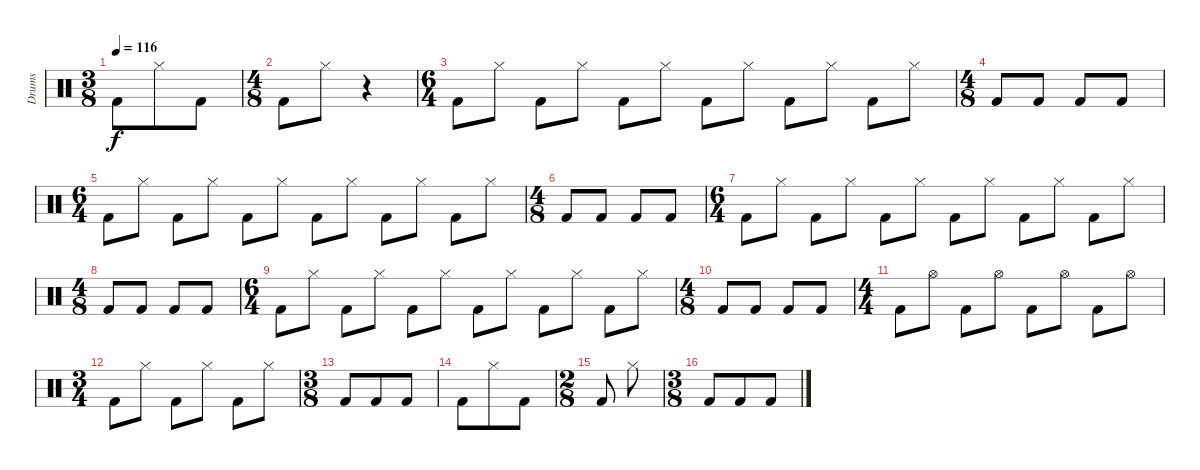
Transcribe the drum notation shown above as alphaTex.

\track ("Drums" "Drums") {instrument percussion}
\staff {score}
\articulation defaults
\ts (3 8)
\tempo 116
\clef neutral
\ks c "Kick (hit) 2".8{dy f} "Hi-Hat (closed)".8 "Kick (hit) 2".8
|
\ts (4 8)
"Kick (hit) 2".8 "Hi-Hat (closed)".8 r.4 |
\ts (6 4)
"Kick (hit) 2".8 "Hi-Hat (closed)".8 "Kick (hit) 2".8 "Hi-Hat (closed)".8 "Kick (hit) 2".8 "Hi-Hat (closed)".8 "Kick (hit) 2".8 "Hi-Hat (closed)".8 "Kick (hit) 2".8 "Hi-Hat (closed)".8 "Kick (hit) 2".8 "Hi-Hat (closed)".8 |
\ts (4 8)
"Kick (hit) 2".8 "Kick (hit) 2".8 "Kick (hit) 2".8 "Kick (hit) 2".8 |
\ts (6 4)
"Kick (hit) 2".8 "Hi-Hat (closed)".8 "Kick (hit) 2".8 "Hi-Hat (closed)".8 "Kick (hit) 2".8 "Hi-Hat (closed)".8 "Kick (hit) 2".8 "Hi-Hat (closed)".8 "Kick (hit) 2".8 "Hi-Hat (closed)".8 "Kick (hit) 2".8 "Hi-Hat (closed)".8 |
\ts (4 8)
"Kick (hit) 2".8 "Kick (hit) 2".8 "Kick (hit) 2".8 "Kick (hit) 2".8 |
\ts (6 4)
"Kick (hit) 2".8 "Hi-Hat (closed)".8 "Kick (hit) 2".8 "Hi-Hat (closed)".8 "Kick (hit) 2".8 "Hi-Hat (closed)".8 "Kick (hit) 2".8 "Hi-Hat (closed)".8 "Kick (hit) 2".8 "Hi-Hat (closed)".8 "Kick (hit) 2".8 "Hi-Hat (closed)".8 |
\ts (4 8)
"Kick (hit) 2".8 "Kick (hit) 2".8 "Kick (hit) 2".8 "Kick (hit) 2".8 |
\ts (6 4)
"Kick (hit) 2".8 "Hi-Hat (closed)".8 "Kick (hit) 2".8 "Hi-Hat (closed)".8 "Kick (hit) 2".8 "Hi-Hat (closed)".8 "Kick (hit) 2".8 "Hi-Hat (closed)".8 "Kick (hit) 2".8 "Hi-Hat (closed)".8 "Kick (hit) 2".8 "Hi-Hat (closed)".8 |
\ts (4 8)
"Kick (hit) 2".8 "Kick (hit) 2".8 "Kick (hit) 2".8 "Kick (hit) 2".8 |
\ts (4 4)
"Kick (hit) 2".8 "Hi-Hat (open)".8 "Kick (hit) 2".8 "Hi-Hat (open)".8 "Kick (hit) 2".8 "Hi-Hat (open)".8 "Kick (hit) 2".8 "Hi-Hat (open)".8 |
\ts (3 4)
"Kick (hit) 2".8 "Hi-Hat (closed)".8 "Kick (hit) 2".8 "Hi-Hat (closed)".8 "Kick (hit) 2".8 "Hi-Hat (closed)".8 |
\ts (3 8)
"Kick (hit) 2".8 "Kick (hit) 2".8 "Kick (hit) 2".8 |
"Kick (hit) 2".8 "Hi-Hat (closed)".8 "Kick (hit) 2".8 |
\ts (2 8)
"Kick (hit) 2".8 "Hi-Hat (closed)".8 |
\ts (3 8)
"Kick (hit) 2".8 "Kick (hit) 2".8 "Kick (hit) 2".8
